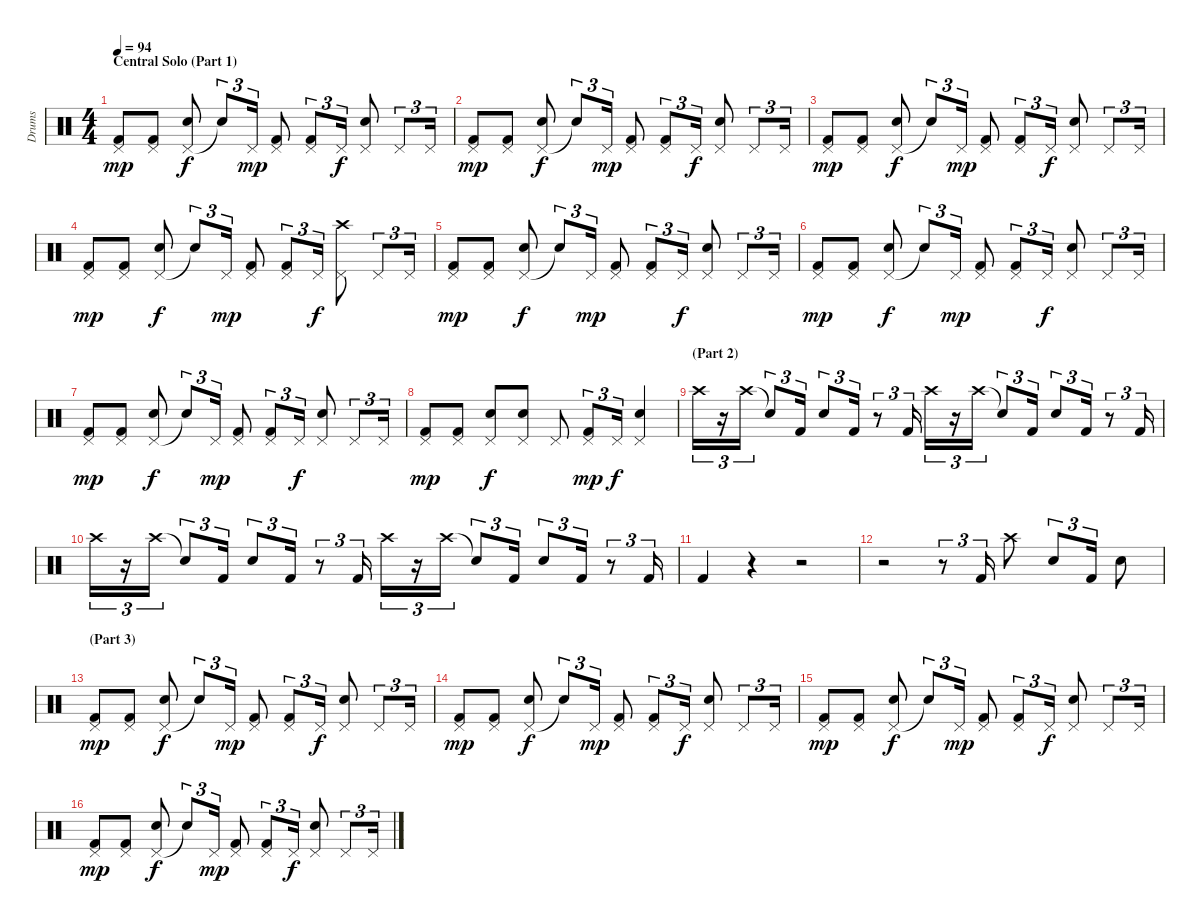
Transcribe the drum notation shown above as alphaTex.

\track ("Drums" "Drums") {instrument percussion}
\staff {score}
\articulation defaults
\ts (4 4)
\section ("" "Central Solo (Part 1)")
\tempo 94
\clef neutral
\ks c
("Pedal Hi-Hat (hit)" "Kick (hit) 2").8{dy mp} ("Pedal Hi-Hat (hit)" "Kick (hit) 2").8 ("Pedal Hi-Hat (hit)" "Electric Snare (hit)").8{dy f} "Snare (hit)"{t}.8{tu (3 2)} "Pedal Hi-Hat (hit)".16{tu (3 2) dy mp} ("Pedal Hi-Hat (hit)" "Kick (hit) 2").8 ("Pedal Hi-Hat (hit)" "Kick (hit) 2").8{tu (3 2)} "Pedal Hi-Hat (hit)".16{tu (3 2) dy f} ("Pedal Hi-Hat (hit)" "Electric Snare (hit)").8 "Pedal Hi-Hat (hit)".8{tu (3 2)} "Pedal Hi-Hat (hit)".16{tu (3 2)} |
("Pedal Hi-Hat (hit)" "Kick (hit) 2").8{dy mp} ("Pedal Hi-Hat (hit)" "Kick (hit) 2").8 ("Pedal Hi-Hat (hit)" "Electric Snare (hit)").8{dy f} "Snare (hit)"{t}.8{tu (3 2)} "Pedal Hi-Hat (hit)".16{tu (3 2) dy mp} ("Pedal Hi-Hat (hit)" "Kick (hit) 2").8 ("Pedal Hi-Hat (hit)" "Kick (hit) 2").8{tu (3 2)} "Pedal Hi-Hat (hit)".16{tu (3 2) dy f} ("Pedal Hi-Hat (hit)" "Electric Snare (hit)").8 "Pedal Hi-Hat (hit)".8{tu (3 2)} "Pedal Hi-Hat (hit)".16{tu (3 2)} |
("Pedal Hi-Hat (hit)" "Kick (hit) 2").8{dy mp} ("Pedal Hi-Hat (hit)" "Kick (hit) 2").8 ("Pedal Hi-Hat (hit)" "Electric Snare (hit)").8{dy f} "Snare (hit)"{t}.8{tu (3 2)} "Pedal Hi-Hat (hit)".16{tu (3 2) dy mp} ("Pedal Hi-Hat (hit)" "Kick (hit) 2").8 ("Pedal Hi-Hat (hit)" "Kick (hit) 2").8{tu (3 2)} "Pedal Hi-Hat (hit)".16{tu (3 2) dy f} ("Pedal Hi-Hat (hit)" "Electric Snare (hit)").8 "Pedal Hi-Hat (hit)".8{tu (3 2)} "Pedal Hi-Hat (hit)".16{tu (3 2)} |
("Pedal Hi-Hat (hit)" "Kick (hit) 2").8{dy mp} ("Pedal Hi-Hat (hit)" "Kick (hit) 2").8 ("Pedal Hi-Hat (hit)" "Electric Snare (hit)").8{dy f} "Snare (hit)"{t}.8{tu (3 2)} "Pedal Hi-Hat (hit)".16{tu (3 2) dy mp} ("Pedal Hi-Hat (hit)" "Kick (hit) 2").8 ("Pedal Hi-Hat (hit)" "Kick (hit) 2").8{tu (3 2)} "Pedal Hi-Hat (hit)".16{tu (3 2) dy f} ("Pedal Hi-Hat (hit)" "Crash high (hit)").8 "Pedal Hi-Hat (hit)".8{tu (3 2)} "Pedal Hi-Hat (hit)".16{tu (3 2)} |
("Pedal Hi-Hat (hit)" "Kick (hit) 2").8{dy mp} ("Pedal Hi-Hat (hit)" "Kick (hit) 2").8 ("Pedal Hi-Hat (hit)" "Electric Snare (hit)").8{dy f} "Snare (hit)"{t}.8{tu (3 2)} "Pedal Hi-Hat (hit)".16{tu (3 2) dy mp} ("Pedal Hi-Hat (hit)" "Kick (hit) 2").8 ("Pedal Hi-Hat (hit)" "Kick (hit) 2").8{tu (3 2)} "Pedal Hi-Hat (hit)".16{tu (3 2) dy f} ("Pedal Hi-Hat (hit)" "Electric Snare (hit)").8 "Pedal Hi-Hat (hit)".8{tu (3 2)} "Pedal Hi-Hat (hit)".16{tu (3 2)} |
("Pedal Hi-Hat (hit)" "Kick (hit) 2").8{dy mp} ("Pedal Hi-Hat (hit)" "Kick (hit) 2").8 ("Pedal Hi-Hat (hit)" "Electric Snare (hit)").8{dy f} "Snare (hit)"{t}.8{tu (3 2)} "Pedal Hi-Hat (hit)".16{tu (3 2) dy mp} ("Pedal Hi-Hat (hit)" "Kick (hit) 2").8 ("Pedal Hi-Hat (hit)" "Kick (hit) 2").8{tu (3 2)} "Pedal Hi-Hat (hit)".16{tu (3 2) dy f} ("Pedal Hi-Hat (hit)" "Electric Snare (hit)").8 "Pedal Hi-Hat (hit)".8{tu (3 2)} "Pedal Hi-Hat (hit)".16{tu (3 2)} |
("Pedal Hi-Hat (hit)" "Kick (hit) 2").8{dy mp} ("Pedal Hi-Hat (hit)" "Kick (hit) 2").8 ("Pedal Hi-Hat (hit)" "Electric Snare (hit)").8{dy f} "Snare (hit)"{t}.8{tu (3 2)} "Pedal Hi-Hat (hit)".16{tu (3 2) dy mp} ("Pedal Hi-Hat (hit)" "Kick (hit) 2").8 ("Pedal Hi-Hat (hit)" "Kick (hit) 2").8{tu (3 2)} "Pedal Hi-Hat (hit)".16{tu (3 2) dy f} ("Pedal Hi-Hat (hit)" "Electric Snare (hit)").8 "Pedal Hi-Hat (hit)".8{tu (3 2)} "Pedal Hi-Hat (hit)".16{tu (3 2)} |
("Pedal Hi-Hat (hit)" "Kick (hit) 2").8{dy mp} ("Pedal Hi-Hat (hit)" "Kick (hit) 2").8 ("Pedal Hi-Hat (hit)" "Electric Snare (hit)").8{dy f} ("Pedal Hi-Hat (hit)" "Electric Snare (hit)").8 "Pedal Hi-Hat (hit)".8 ("Pedal Hi-Hat (hit)" "Kick (hit) 2").8{tu (3 2) dy mp} "Pedal Hi-Hat (hit)".16{tu (3 2) dy f} ("Pedal Hi-Hat (hit)" "Electric Snare (hit)").4 |
\section ("" "(Part 2)")
"Crash high (hit)".16{tu (3 2)} r.16{tu (3 2)} "Crash high (hit)".16{tu (3 2)} "Snare (hit)"{t}.8{tu (3 2)} "Kick (hit) 2".16{tu (3 2)} "Electric Snare (hit)".8{tu (3 2)} "Kick (hit) 2".16{tu (3 2)} r.8{tu (3 2)} "Kick (hit) 2".16{tu (3 2)} "Crash high (hit)".16{tu (3 2)} r.16{tu (3 2)} "Crash high (hit)".16{tu (3 2)} "Snare (hit)"{t}.8{tu (3 2)} "Kick (hit) 2".16{tu (3 2)} "Electric Snare (hit)".8{tu (3 2)} "Kick (hit) 2".16{tu (3 2)} r.8{tu (3 2)} "Kick (hit) 2".16{tu (3 2)} |
"Crash high (hit)".16{tu (3 2)} r.16{tu (3 2)} "Crash high (hit)".16{tu (3 2)} "Snare (hit)"{t}.8{tu (3 2)} "Kick (hit) 2".16{tu (3 2)} "Electric Snare (hit)".8{tu (3 2)} "Kick (hit) 2".16{tu (3 2)} r.8{tu (3 2)} "Kick (hit) 2".16{tu (3 2)} "Crash high (hit)".16{tu (3 2)} r.16{tu (3 2)} "Crash high (hit)".16{tu (3 2)} "Snare (hit)"{t}.8{tu (3 2)} "Kick (hit) 2".16{tu (3 2)} "Electric Snare (hit)".8{tu (3 2)} "Kick (hit) 2".16{tu (3 2)} r.8{tu (3 2)} "Kick (hit) 2".16{tu (3 2)} |
"Kick (hit) 2".4 r.4 r.2 |
r.2 r.8{tu (3 2)} "Kick (hit) 2".16{tu (3 2)} "Crash high (hit)".8 "Electric Snare (hit)".8{tu (3 2)} "Kick (hit) 2".16{tu (3 2)} "Electric Snare (hit)".8 |
\section ("" "(Part 3)")
("Pedal Hi-Hat (hit)" "Kick (hit) 2").8{dy mp} ("Pedal Hi-Hat (hit)" "Kick (hit) 2").8 ("Pedal Hi-Hat (hit)" "Electric Snare (hit)").8{dy f} "Snare (hit)"{t}.8{tu (3 2)} "Pedal Hi-Hat (hit)".16{tu (3 2) dy mp} ("Pedal Hi-Hat (hit)" "Kick (hit) 2").8 ("Pedal Hi-Hat (hit)" "Kick (hit) 2").8{tu (3 2)} "Pedal Hi-Hat (hit)".16{tu (3 2) dy f} ("Pedal Hi-Hat (hit)" "Electric Snare (hit)").8 "Pedal Hi-Hat (hit)".8{tu (3 2)} "Pedal Hi-Hat (hit)".16{tu (3 2)} |
("Pedal Hi-Hat (hit)" "Kick (hit) 2").8{dy mp} ("Pedal Hi-Hat (hit)" "Kick (hit) 2").8 ("Pedal Hi-Hat (hit)" "Electric Snare (hit)").8{dy f} "Snare (hit)"{t}.8{tu (3 2)} "Pedal Hi-Hat (hit)".16{tu (3 2) dy mp} ("Pedal Hi-Hat (hit)" "Kick (hit) 2").8 ("Pedal Hi-Hat (hit)" "Kick (hit) 2").8{tu (3 2)} "Pedal Hi-Hat (hit)".16{tu (3 2) dy f} ("Pedal Hi-Hat (hit)" "Electric Snare (hit)").8 "Pedal Hi-Hat (hit)".8{tu (3 2)} "Pedal Hi-Hat (hit)".16{tu (3 2)} |
("Pedal Hi-Hat (hit)" "Kick (hit) 2").8{dy mp} ("Pedal Hi-Hat (hit)" "Kick (hit) 2").8 ("Pedal Hi-Hat (hit)" "Electric Snare (hit)").8{dy f} "Snare (hit)"{t}.8{tu (3 2)} "Pedal Hi-Hat (hit)".16{tu (3 2) dy mp} ("Pedal Hi-Hat (hit)" "Kick (hit) 2").8 ("Pedal Hi-Hat (hit)" "Kick (hit) 2").8{tu (3 2)} "Pedal Hi-Hat (hit)".16{tu (3 2) dy f} ("Pedal Hi-Hat (hit)" "Electric Snare (hit)").8 "Pedal Hi-Hat (hit)".8{tu (3 2)} "Pedal Hi-Hat (hit)".16{tu (3 2)} |
("Pedal Hi-Hat (hit)" "Kick (hit) 2").8{dy mp} ("Pedal Hi-Hat (hit)" "Kick (hit) 2").8 ("Pedal Hi-Hat (hit)" "Electric Snare (hit)").8{dy f} "Snare (hit)"{t}.8{tu (3 2)} "Pedal Hi-Hat (hit)".16{tu (3 2) dy mp} ("Pedal Hi-Hat (hit)" "Kick (hit) 2").8 ("Pedal Hi-Hat (hit)" "Kick (hit) 2").8{tu (3 2)} "Pedal Hi-Hat (hit)".16{tu (3 2) dy f} ("Pedal Hi-Hat (hit)" "Electric Snare (hit)").8 "Pedal Hi-Hat (hit)".8{tu (3 2)} "Pedal Hi-Hat (hit)".16{tu (3 2)}
